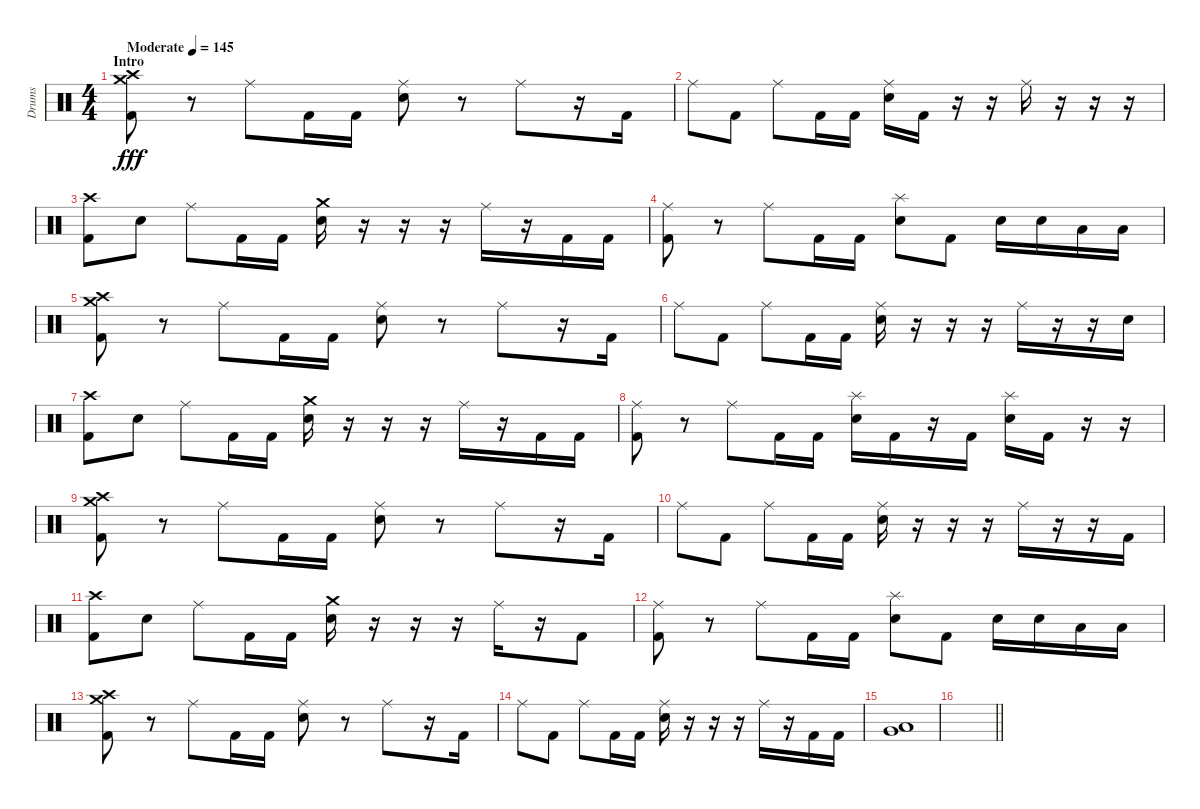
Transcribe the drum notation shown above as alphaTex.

\track ("Drums" "Drums") {instrument percussion}
\staff {score}
\articulation defaults
\ts (4 4)
\section ("" "Intro")
\tempo (145 "Moderate")
\clef neutral
\ks c
("Crash medium (hit)" "Crash high (hit)" "Kick (hit) 2").8{dy fff} r.8 "Ride (middle)".8 "Kick (hit) 2".16 "Kick (hit) 2".16 ("Ride (middle)" "Electric Snare (hit)").8 r.8 "Ride (middle)".8 r.16 "Kick (hit) 2".16 |
"Ride (middle)".8 "Kick (hit) 2".8 "Ride (middle)".8 "Kick (hit) 2".16 "Kick (hit) 2".16 ("Ride (middle)" "Electric Snare (hit)").16 "Kick (hit) 2".16 r.16 r.16 "Ride (middle)".16 r.16 r.16 r.16 |
("Crash high (hit)" "Kick (hit) 2").8 "Electric Snare (hit)".8 "Ride (middle)".8 "Kick (hit) 2".16 "Kick (hit) 2".16 ("Crash medium (hit)" "Electric Snare (hit)").16 r.16 r.16 r.16 "Ride (middle)".16 r.16 "Kick (hit) 2".16 "Kick (hit) 2".16 |
("Ride (middle)" "Kick (hit) 2").8 r.8 "Ride (middle)".8 "Kick (hit) 2".16 "Kick (hit) 2".16 ("Splash (hit)" "Electric Snare (hit)").8 "Kick (hit) 2".8 "Electric Snare (hit)".16 "Electric Snare (hit)".16 "Low Tom (hit)".16 "Low Floor Tom (hit)".16 |
("Crash medium (hit)" "Crash high (hit)" "Kick (hit) 2").8 r.8 "Ride (middle)".8 "Kick (hit) 2".16 "Kick (hit) 2".16 ("Ride (middle)" "Electric Snare (hit)").8 r.8 "Ride (middle)".8 r.16 "Kick (hit) 2".16 |
"Ride (middle)".8 "Kick (hit) 2".8 "Ride (middle)".8 "Kick (hit) 2".16 "Kick (hit) 2".16 ("Ride (middle)" "Electric Snare (hit)").16 r.16 r.16 r.16 "Ride (middle)".16 r.16 r.16 "Electric Snare (hit)".16 |
("Crash high (hit)" "Kick (hit) 2").8 "Electric Snare (hit)".8 "Ride (middle)".8 "Kick (hit) 2".16 "Kick (hit) 2".16 ("Crash medium (hit)" "Electric Snare (hit)").16 r.16 r.16 r.16 "Ride (middle)".16 r.16 "Kick (hit) 2".16 "Kick (hit) 2".16 |
("Ride (middle)" "Kick (hit) 2").8 r.8 "Ride (middle)".8 "Kick (hit) 2".16 "Kick (hit) 2".16 ("Splash (hit)" "Electric Snare (hit)").16 "Kick (hit) 2".16 r.16 "Kick (hit) 2".16 ("Splash (hit)" "Electric Snare (hit)").16 "Kick (hit) 2".16 r.16 r.16 |
("Crash medium (hit)" "Crash high (hit)" "Kick (hit) 2").8 r.8 "Ride (middle)".8 "Kick (hit) 2".16 "Kick (hit) 2".16 ("Ride (middle)" "Electric Snare (hit)").8 r.8 "Ride (middle)".8 r.16 "Kick (hit) 2".16 |
"Ride (middle)".8 "Kick (hit) 2".8 "Ride (middle)".8 "Kick (hit) 2".16 "Kick (hit) 2".16 ("Ride (middle)" "Electric Snare (hit)").16 r.16 r.16 r.16 "Ride (middle)".16 r.16 r.16 "Kick (hit) 2".16 |
("Crash high (hit)" "Kick (hit) 2").8 "Electric Snare (hit)".8 "Ride (middle)".8 "Kick (hit) 2".16 "Kick (hit) 2".16 ("Crash medium (hit)" "Electric Snare (hit)").16 r.16 r.16 r.16 "Ride (middle)".16 r.16 "Kick (hit) 2".8 |
("Ride (middle)" "Kick (hit) 2").8 r.8 "Ride (middle)".8 "Kick (hit) 2".16 "Kick (hit) 2".16 ("Splash (hit)" "Electric Snare (hit)").8 "Kick (hit) 2".8 "Electric Snare (hit)".16 "Electric Snare (hit)".16 "Low Tom (hit)".16 "Low Floor Tom (hit)".16 |
("Crash medium (hit)" "Crash high (hit)" "Kick (hit) 2").8 r.8 "Ride (middle)".8 "Kick (hit) 2".16 "Kick (hit) 2".16 ("Ride (middle)" "Electric Snare (hit)").8 r.8 "Ride (middle)".8 r.16 "Kick (hit) 2".16 |
"Ride (middle)".8 "Kick (hit) 2".8 "Ride (middle)".8 "Kick (hit) 2".16 "Kick (hit) 2".16 ("Ride (middle)" "Electric Snare (hit)").16 r.16 r.16 r.16 "Ride (middle)".16 r.16 "Kick (hit) 2".16 "Kick (hit) 2".16 |
("Very Low Tom (hit)" "Low Floor Tom (hit)").1 |
\barLineRight lightlight
